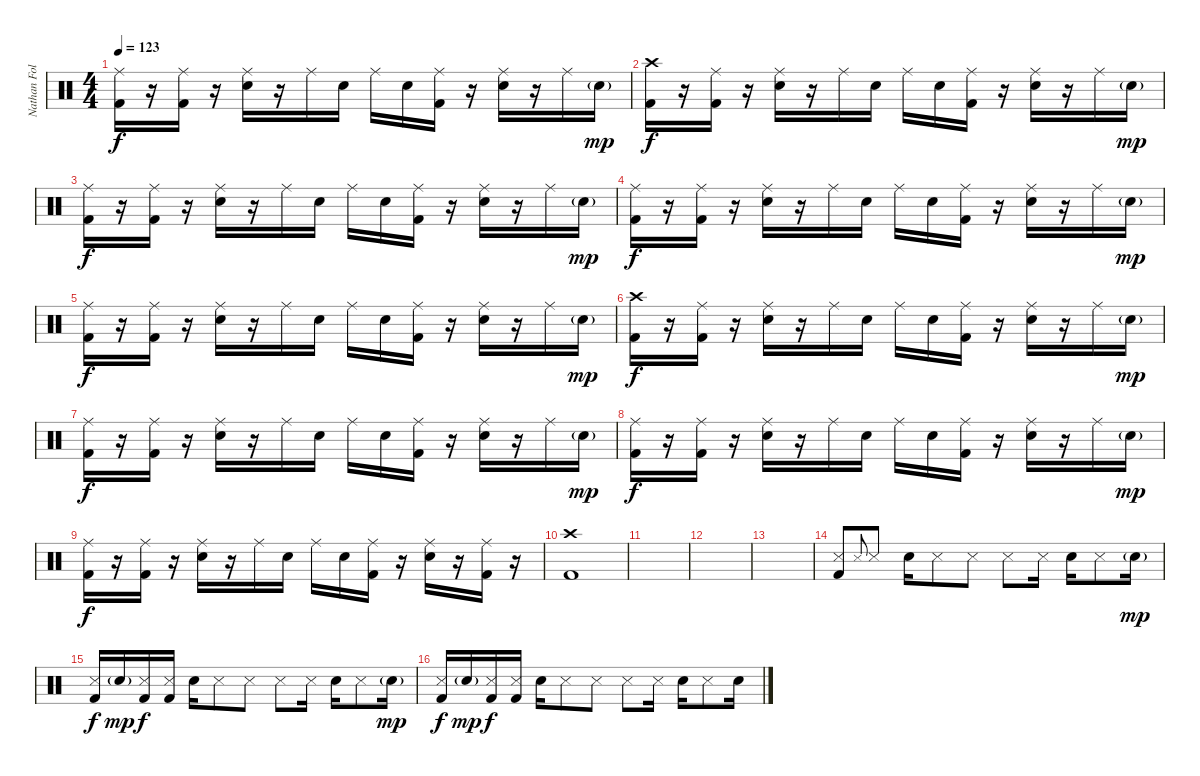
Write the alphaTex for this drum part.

\track ("Nathan Followill" "Nathan Fol") {instrument percussion}
\staff {score}
\articulation defaults
\ts (4 4)
\tempo 123
\clef neutral
\ks c
("Ride (middle)" "Kick (hit) 2").16{dy f} r.16 ("Ride (middle)" "Kick (hit) 2").16 r.16 ("Ride (middle)" "Electric Snare (hit)").16 r.16 "Ride (middle)".16 "Electric Snare (hit)".16 "Ride (middle)".16 "Electric Snare (hit)".16 ("Ride (middle)" "Kick (hit) 2").16 r.16 ("Ride (middle)" "Electric Snare (hit)").16 r.16 "Ride (middle)".16 "Electric Snare (hit)"{g}.16{dy mp} |
("Crash high (hit)" "Kick (hit) 2").16{dy f} r.16 ("Ride (middle)" "Kick (hit) 2").16 r.16 ("Ride (middle)" "Electric Snare (hit)").16 r.16 "Ride (middle)".16 "Electric Snare (hit)".16 "Ride (middle)".16 "Electric Snare (hit)".16 ("Ride (middle)" "Kick (hit) 2").16 r.16 ("Ride (middle)" "Electric Snare (hit)").16 r.16 "Ride (middle)".16 "Electric Snare (hit)"{g}.16{dy mp} |
("Ride (middle)" "Kick (hit) 2").16{dy f} r.16 ("Ride (middle)" "Kick (hit) 2").16 r.16 ("Ride (middle)" "Electric Snare (hit)").16 r.16 "Ride (middle)".16 "Electric Snare (hit)".16 "Ride (middle)".16 "Electric Snare (hit)".16 ("Ride (middle)" "Kick (hit) 2").16 r.16 ("Ride (middle)" "Electric Snare (hit)").16 r.16 "Ride (middle)".16 "Electric Snare (hit)"{g}.16{dy mp} |
("Ride (middle)" "Kick (hit) 2").16{dy f} r.16 ("Ride (middle)" "Kick (hit) 2").16 r.16 ("Ride (middle)" "Electric Snare (hit)").16 r.16 "Ride (middle)".16 "Electric Snare (hit)".16 "Ride (middle)".16 "Electric Snare (hit)".16 ("Ride (middle)" "Kick (hit) 2").16 r.16 ("Ride (middle)" "Electric Snare (hit)").16 r.16 "Ride (middle)".16 "Electric Snare (hit)"{g}.16{dy mp} |
("Ride (middle)" "Kick (hit) 2").16{dy f} r.16 ("Ride (middle)" "Kick (hit) 2").16 r.16 ("Ride (middle)" "Electric Snare (hit)").16 r.16 "Ride (middle)".16 "Electric Snare (hit)".16 "Ride (middle)".16 "Electric Snare (hit)".16 ("Ride (middle)" "Kick (hit) 2").16 r.16 ("Ride (middle)" "Electric Snare (hit)").16 r.16 "Ride (middle)".16 "Electric Snare (hit)"{g}.16{dy mp} |
("Crash high (hit)" "Kick (hit) 2").16{dy f} r.16 ("Ride (middle)" "Kick (hit) 2").16 r.16 ("Ride (middle)" "Electric Snare (hit)").16 r.16 "Ride (middle)".16 "Electric Snare (hit)".16 "Ride (middle)".16 "Electric Snare (hit)".16 ("Ride (middle)" "Kick (hit) 2").16 r.16 ("Ride (middle)" "Electric Snare (hit)").16 r.16 "Ride (middle)".16 "Electric Snare (hit)"{g}.16{dy mp} |
("Ride (middle)" "Kick (hit) 2").16{dy f} r.16 ("Ride (middle)" "Kick (hit) 2").16 r.16 ("Ride (middle)" "Electric Snare (hit)").16 r.16 "Ride (middle)".16 "Electric Snare (hit)".16 "Ride (middle)".16 "Electric Snare (hit)".16 ("Ride (middle)" "Kick (hit) 2").16 r.16 ("Ride (middle)" "Electric Snare (hit)").16 r.16 "Ride (middle)".16 "Electric Snare (hit)"{g}.16{dy mp} |
("Ride (middle)" "Kick (hit) 2").16{dy f} r.16 ("Ride (middle)" "Kick (hit) 2").16 r.16 ("Ride (middle)" "Electric Snare (hit)").16 r.16 "Ride (middle)".16 "Electric Snare (hit)".16 "Ride (middle)".16 "Electric Snare (hit)".16 ("Ride (middle)" "Kick (hit) 2").16 r.16 ("Ride (middle)" "Electric Snare (hit)").16 r.16 "Ride (middle)".16 "Electric Snare (hit)"{g}.16{dy mp} |
("Ride (middle)" "Kick (hit) 2").16{dy f} r.16 ("Ride (middle)" "Kick (hit) 2").16 r.16 ("Ride (middle)" "Electric Snare (hit)").16 r.16 "Ride (middle)".16 "Electric Snare (hit)".16 "Ride (middle)".16 "Electric Snare (hit)".16 ("Ride (middle)" "Kick (hit) 2").16 r.16 ("Ride (middle)" "Electric Snare (hit)").16 r.16 ("Ride (middle)" "Kick (hit) 2").16 r.16 |
("Crash high (hit)" "Kick (hit) 2").1 |
|
|
|
("Snare (side stick) 3" "Kick (hit) 2").8 "Snare (side stick) 3".8{gr onbeat} "Snare (side stick) 3".8 "Electric Snare (hit)".16 "Snare (side stick) 3".8 "Snare (side stick) 3".8 "Snare (side stick) 3".8 "Snare (side stick) 3".16 "Electric Snare (hit)".16 "Snare (side stick) 3".8 "Electric Snare (hit)"{g}.16{dy mp} |
("Snare (side stick) 3" "Kick (hit) 2").16{dy f} "Electric Snare (hit)"{g}.16{dy mp} ("Snare (side stick) 3" "Kick (hit) 2").16{dy f} ("Snare (side stick) 3" "Kick (hit) 2").16 "Electric Snare (hit)".16 "Snare (side stick) 3".8 "Snare (side stick) 3".8 "Snare (side stick) 3".8 "Snare (side stick) 3".16 "Electric Snare (hit)".16 "Snare (side stick) 3".8 "Electric Snare (hit)"{g}.16{dy mp} |
("Snare (side stick) 3" "Kick (hit) 2").16{dy f} "Electric Snare (hit)"{g}.16{dy mp} ("Snare (side stick) 3" "Kick (hit) 2").16{dy f} ("Snare (side stick) 3" "Kick (hit) 2").16 "Electric Snare (hit)".16 "Snare (side stick) 3".8 "Snare (side stick) 3".8 "Snare (side stick) 3".8 "Snare (side stick) 3".16 "Electric Snare (hit)".16 "Snare (side stick) 3".8 "Electric Snare (hit)".16
